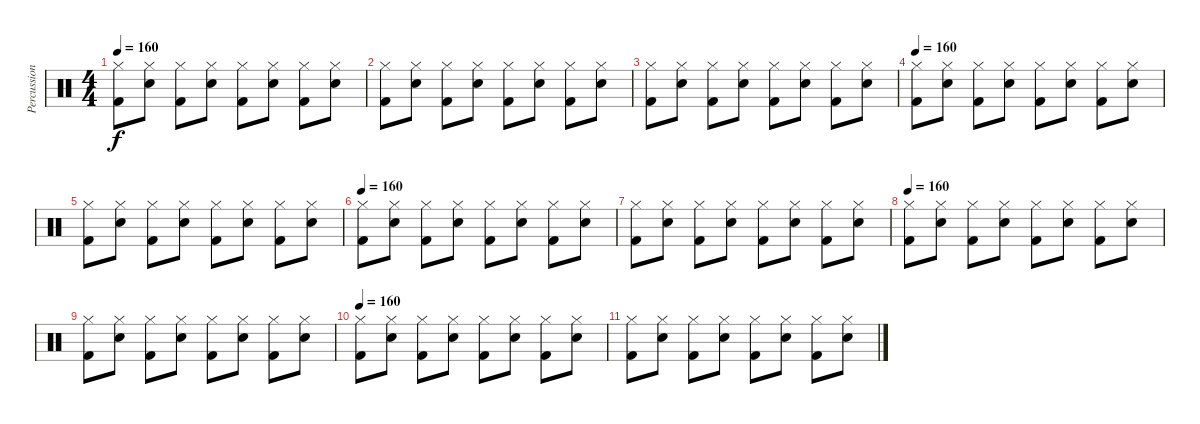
\track ("Percussions" "Percussion") {instrument percussion}
\staff {score}
\articulation defaults
\ts (4 4)
\tempo 160
\clef neutral
\ks c
("Hi-Hat (closed)" "Kick (hit) 2").8{dy f} ("Hi-Hat (closed)" "Electric Snare (hit)").8 ("Hi-Hat (closed)" "Kick (hit) 2").8 ("Hi-Hat (closed)" "Electric Snare (hit)").8 ("Hi-Hat (closed)" "Kick (hit) 2").8 ("Hi-Hat (closed)" "Electric Snare (hit)").8 ("Hi-Hat (closed)" "Kick (hit) 2").8 ("Hi-Hat (closed)" "Electric Snare (hit)").8 |
("Hi-Hat (closed)" "Kick (hit) 2").8 ("Hi-Hat (closed)" "Electric Snare (hit)").8 ("Hi-Hat (closed)" "Kick (hit) 2").8 ("Hi-Hat (closed)" "Electric Snare (hit)").8 ("Hi-Hat (closed)" "Kick (hit) 2").8 ("Hi-Hat (closed)" "Electric Snare (hit)").8 ("Hi-Hat (closed)" "Kick (hit) 2").8 ("Hi-Hat (closed)" "Electric Snare (hit)").8 |
("Hi-Hat (closed)" "Kick (hit) 2").8 ("Hi-Hat (closed)" "Electric Snare (hit)").8 ("Hi-Hat (closed)" "Kick (hit) 2").8 ("Hi-Hat (closed)" "Electric Snare (hit)").8 ("Hi-Hat (closed)" "Kick (hit) 2").8 ("Hi-Hat (closed)" "Electric Snare (hit)").8 ("Hi-Hat (closed)" "Kick (hit) 2").8 ("Hi-Hat (closed)" "Electric Snare (hit)").8 |
\tempo 160
("Hi-Hat (closed)" "Kick (hit) 2").8 ("Hi-Hat (closed)" "Electric Snare (hit)").8 ("Hi-Hat (closed)" "Kick (hit) 2").8 ("Hi-Hat (closed)" "Electric Snare (hit)").8 ("Hi-Hat (closed)" "Kick (hit) 2").8 ("Hi-Hat (closed)" "Electric Snare (hit)").8 ("Hi-Hat (closed)" "Kick (hit) 2").8 ("Hi-Hat (closed)" "Electric Snare (hit)").8 |
("Hi-Hat (closed)" "Kick (hit) 2").8 ("Hi-Hat (closed)" "Electric Snare (hit)").8 ("Hi-Hat (closed)" "Kick (hit) 2").8 ("Hi-Hat (closed)" "Electric Snare (hit)").8 ("Hi-Hat (closed)" "Kick (hit) 2").8 ("Hi-Hat (closed)" "Electric Snare (hit)").8 ("Hi-Hat (closed)" "Kick (hit) 2").8 ("Hi-Hat (closed)" "Electric Snare (hit)").8 |
\tempo 160
("Hi-Hat (closed)" "Kick (hit) 2").8 ("Hi-Hat (closed)" "Electric Snare (hit)").8 ("Hi-Hat (closed)" "Kick (hit) 2").8 ("Hi-Hat (closed)" "Electric Snare (hit)").8 ("Hi-Hat (closed)" "Kick (hit) 2").8 ("Hi-Hat (closed)" "Electric Snare (hit)").8 ("Hi-Hat (closed)" "Kick (hit) 2").8 ("Hi-Hat (closed)" "Electric Snare (hit)").8 |
("Hi-Hat (closed)" "Kick (hit) 2").8 ("Hi-Hat (closed)" "Electric Snare (hit)").8 ("Hi-Hat (closed)" "Kick (hit) 2").8 ("Hi-Hat (closed)" "Electric Snare (hit)").8 ("Hi-Hat (closed)" "Kick (hit) 2").8 ("Hi-Hat (closed)" "Electric Snare (hit)").8 ("Hi-Hat (closed)" "Kick (hit) 2").8 ("Hi-Hat (closed)" "Electric Snare (hit)").8 |
\tempo 160
("Hi-Hat (closed)" "Kick (hit) 2").8 ("Hi-Hat (closed)" "Electric Snare (hit)").8 ("Hi-Hat (closed)" "Kick (hit) 2").8 ("Hi-Hat (closed)" "Electric Snare (hit)").8 ("Hi-Hat (closed)" "Kick (hit) 2").8 ("Hi-Hat (closed)" "Electric Snare (hit)").8 ("Hi-Hat (closed)" "Kick (hit) 2").8 ("Hi-Hat (closed)" "Electric Snare (hit)").8 |
("Hi-Hat (closed)" "Kick (hit) 2").8 ("Hi-Hat (closed)" "Electric Snare (hit)").8 ("Hi-Hat (closed)" "Kick (hit) 2").8 ("Hi-Hat (closed)" "Electric Snare (hit)").8 ("Hi-Hat (closed)" "Kick (hit) 2").8 ("Hi-Hat (closed)" "Electric Snare (hit)").8 ("Hi-Hat (closed)" "Kick (hit) 2").8 ("Hi-Hat (closed)" "Electric Snare (hit)").8 |
\tempo 160
("Hi-Hat (closed)" "Kick (hit) 2").8 ("Hi-Hat (closed)" "Electric Snare (hit)").8 ("Hi-Hat (closed)" "Kick (hit) 2").8 ("Hi-Hat (closed)" "Electric Snare (hit)").8 ("Hi-Hat (closed)" "Kick (hit) 2").8 ("Hi-Hat (closed)" "Electric Snare (hit)").8 ("Hi-Hat (closed)" "Kick (hit) 2").8 ("Hi-Hat (closed)" "Electric Snare (hit)").8 |
("Hi-Hat (closed)" "Kick (hit) 2").8 ("Hi-Hat (closed)" "Electric Snare (hit)").8 ("Hi-Hat (closed)" "Kick (hit) 2").8 ("Hi-Hat (closed)" "Electric Snare (hit)").8 ("Hi-Hat (closed)" "Kick (hit) 2").8 ("Hi-Hat (closed)" "Electric Snare (hit)").8 ("Hi-Hat (closed)" "Kick (hit) 2").8 ("Hi-Hat (closed)" "Electric Snare (hit)").8
